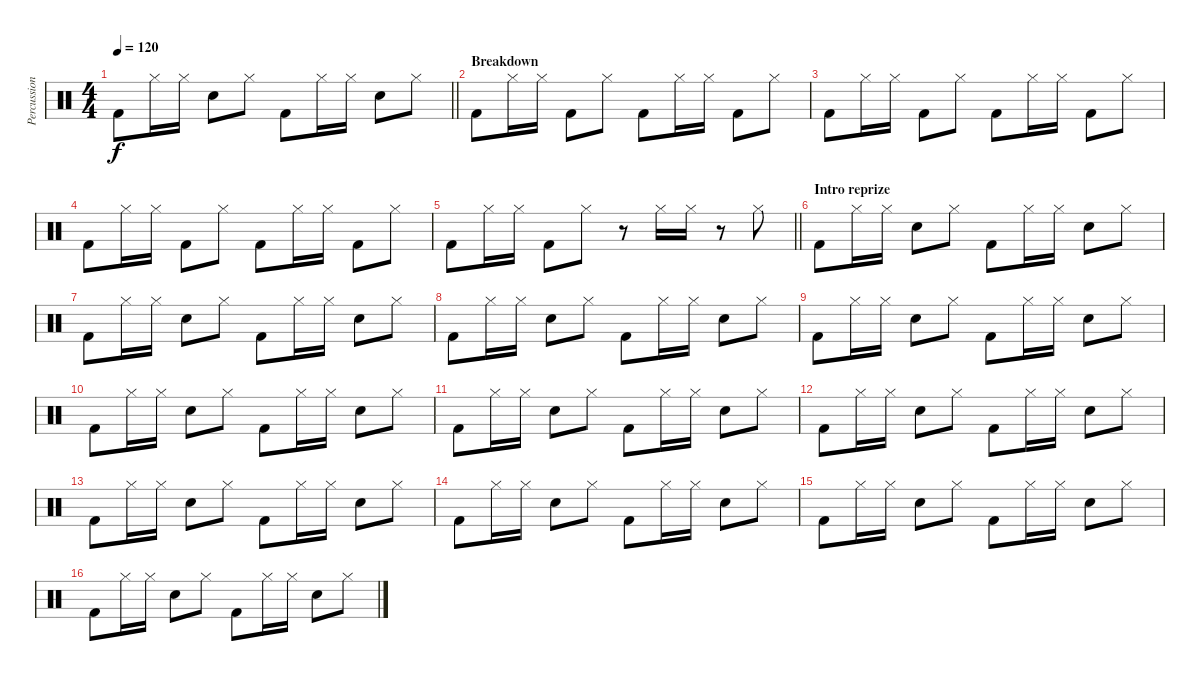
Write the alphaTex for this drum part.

\track ("Percussion" "Percussion") {instrument percussion}
\staff {score}
\articulation defaults
\ts (4 4)
\tempo 120
\clef neutral
\barLineRight lightlight
\ks c "Kick (hit) 2".8{dy f} "Hi-Hat (closed)".16 "Hi-Hat (closed)".16 "Snare (hit) 2".8 "Hi-Hat (closed)".8 "Kick (hit) 2".8 "Hi-Hat (closed)".16 "Hi-Hat (closed)".16 "Snare (hit) 2".8 "Hi-Hat (closed)".8
|
\section ("" "Breakdown")
"Kick (hit) 2".8 "Hi-Hat (closed)".16 "Hi-Hat (closed)".16 "Kick (hit) 2".8 "Hi-Hat (closed)".8 "Kick (hit) 2".8 "Hi-Hat (closed)".16 "Hi-Hat (closed)".16 "Kick (hit) 2".8 "Hi-Hat (closed)".8 |
"Kick (hit) 2".8 "Hi-Hat (closed)".16 "Hi-Hat (closed)".16 "Kick (hit) 2".8 "Hi-Hat (closed)".8 "Kick (hit) 2".8 "Hi-Hat (closed)".16 "Hi-Hat (closed)".16 "Kick (hit) 2".8 "Hi-Hat (closed)".8 |
"Kick (hit) 2".8 "Hi-Hat (closed)".16 "Hi-Hat (closed)".16 "Kick (hit) 2".8 "Hi-Hat (closed)".8 "Kick (hit) 2".8 "Hi-Hat (closed)".16 "Hi-Hat (closed)".16 "Kick (hit) 2".8 "Hi-Hat (closed)".8 |
\barLineRight lightlight "Kick (hit) 2".8 "Hi-Hat (closed)".16 "Hi-Hat (closed)".16 "Kick (hit) 2".8 "Hi-Hat (closed)".8
r.8 "Hi-Hat (closed)".16 "Hi-Hat (closed)".16 r.8 "Hi-Hat (closed)".8 |
\section ("" "Intro reprize")
"Kick (hit) 2".8 "Hi-Hat (closed)".16 "Hi-Hat (closed)".16 "Snare (hit) 2".8 "Hi-Hat (closed)".8 "Kick (hit) 2".8 "Hi-Hat (closed)".16 "Hi-Hat (closed)".16 "Snare (hit) 2".8 "Hi-Hat (closed)".8 |
"Kick (hit) 2".8 "Hi-Hat (closed)".16 "Hi-Hat (closed)".16 "Snare (hit) 2".8 "Hi-Hat (closed)".8 "Kick (hit) 2".8 "Hi-Hat (closed)".16 "Hi-Hat (closed)".16 "Snare (hit) 2".8 "Hi-Hat (closed)".8 |
"Kick (hit) 2".8 "Hi-Hat (closed)".16 "Hi-Hat (closed)".16 "Snare (hit) 2".8 "Hi-Hat (closed)".8 "Kick (hit) 2".8 "Hi-Hat (closed)".16 "Hi-Hat (closed)".16 "Snare (hit) 2".8 "Hi-Hat (closed)".8 |
"Kick (hit) 2".8 "Hi-Hat (closed)".16 "Hi-Hat (closed)".16 "Snare (hit) 2".8 "Hi-Hat (closed)".8 "Kick (hit) 2".8 "Hi-Hat (closed)".16 "Hi-Hat (closed)".16 "Snare (hit) 2".8 "Hi-Hat (closed)".8 |
"Kick (hit) 2".8 "Hi-Hat (closed)".16 "Hi-Hat (closed)".16 "Snare (hit) 2".8 "Hi-Hat (closed)".8 "Kick (hit) 2".8 "Hi-Hat (closed)".16 "Hi-Hat (closed)".16 "Snare (hit) 2".8 "Hi-Hat (closed)".8 |
"Kick (hit) 2".8 "Hi-Hat (closed)".16 "Hi-Hat (closed)".16 "Snare (hit) 2".8 "Hi-Hat (closed)".8 "Kick (hit) 2".8 "Hi-Hat (closed)".16 "Hi-Hat (closed)".16 "Snare (hit) 2".8 "Hi-Hat (closed)".8 |
"Kick (hit) 2".8 "Hi-Hat (closed)".16 "Hi-Hat (closed)".16 "Snare (hit) 2".8 "Hi-Hat (closed)".8 "Kick (hit) 2".8 "Hi-Hat (closed)".16 "Hi-Hat (closed)".16 "Snare (hit) 2".8 "Hi-Hat (closed)".8 |
"Kick (hit) 2".8 "Hi-Hat (closed)".16 "Hi-Hat (closed)".16 "Snare (hit) 2".8 "Hi-Hat (closed)".8 "Kick (hit) 2".8 "Hi-Hat (closed)".16 "Hi-Hat (closed)".16 "Snare (hit) 2".8 "Hi-Hat (closed)".8 |
"Kick (hit) 2".8 "Hi-Hat (closed)".16 "Hi-Hat (closed)".16 "Snare (hit) 2".8 "Hi-Hat (closed)".8 "Kick (hit) 2".8 "Hi-Hat (closed)".16 "Hi-Hat (closed)".16 "Snare (hit) 2".8 "Hi-Hat (closed)".8 |
"Kick (hit) 2".8 "Hi-Hat (closed)".16 "Hi-Hat (closed)".16 "Snare (hit) 2".8 "Hi-Hat (closed)".8 "Kick (hit) 2".8 "Hi-Hat (closed)".16 "Hi-Hat (closed)".16 "Snare (hit) 2".8 "Hi-Hat (closed)".8 |
"Kick (hit) 2".8 "Hi-Hat (closed)".16 "Hi-Hat (closed)".16 "Snare (hit) 2".8 "Hi-Hat (closed)".8 "Kick (hit) 2".8 "Hi-Hat (closed)".16 "Hi-Hat (closed)".16 "Snare (hit) 2".8 "Hi-Hat (closed)".8
